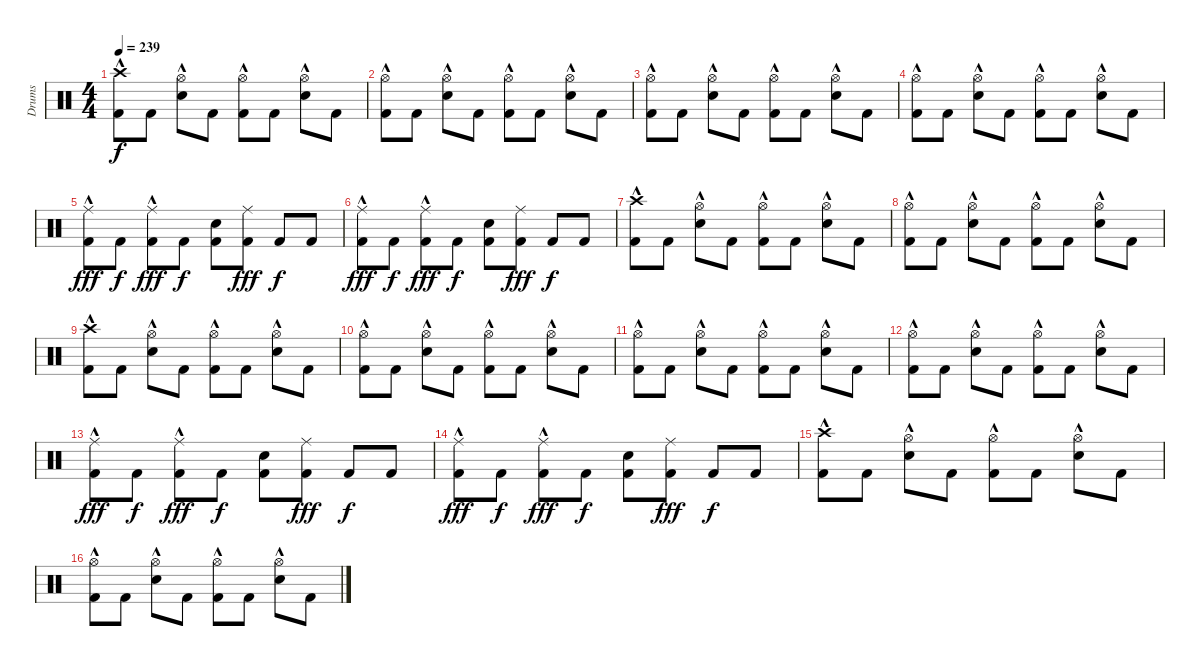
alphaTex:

\track ("Drums" "Drums") {instrument percussion}
\staff {score}
\articulation defaults
\ts (4 4)
\tempo 239
\clef neutral
\ks c
("Crash high (hit)"{hac} "Kick (hit) 2").8{dy f} "Kick (hit) 2".8 ("Snare (hit) 2"{hac} "Hi-Hat (open)"{hac}).8 "Kick (hit) 2".8 ("Hi-Hat (open)"{hac} "Kick (hit) 2").8 "Kick (hit) 2".8 ("Snare (hit) 2"{hac} "Hi-Hat (open)"{hac}).8 "Kick (hit) 2".8 |
("Hi-Hat (open)"{hac} "Kick (hit) 2").8 "Kick (hit) 2".8 ("Snare (hit) 2"{hac} "Hi-Hat (open)"{hac}).8 "Kick (hit) 2".8 ("Hi-Hat (open)"{hac} "Kick (hit) 2").8 "Kick (hit) 2".8 ("Snare (hit) 2"{hac} "Hi-Hat (open)"{hac}).8 "Kick (hit) 2".8 |
("Hi-Hat (open)"{hac} "Kick (hit) 2").8 "Kick (hit) 2".8 ("Snare (hit) 2"{hac} "Hi-Hat (open)"{hac}).8 "Kick (hit) 2".8 ("Hi-Hat (open)"{hac} "Kick (hit) 2").8 "Kick (hit) 2".8 ("Snare (hit) 2"{hac} "Hi-Hat (open)"{hac}).8 "Kick (hit) 2".8 |
("Hi-Hat (open)"{hac} "Kick (hit) 2").8 "Kick (hit) 2".8 ("Snare (hit) 2"{hac} "Hi-Hat (open)"{hac}).8 "Kick (hit) 2".8 ("Hi-Hat (open)"{hac} "Kick (hit) 2").8 "Kick (hit) 2".8 ("Snare (hit) 2"{hac} "Hi-Hat (open)"{hac}).8 "Kick (hit) 2".8 |
("Kick (hit) 2" "Ride (middle)"{hac}).8{dy fff} "Kick (hit) 2".8{dy f} ("Kick (hit) 2" "Ride (middle)"{hac}).8{dy fff} "Kick (hit) 2".8{dy f} ("Kick (hit) 2" "Snare (hit) 2").8 ("Kick (hit) 2" "Ride (middle)").8{dy fff} "Kick (hit) 2".8{dy f} "Kick (hit) 2".8 |
("Kick (hit) 2" "Ride (middle)"{hac}).8{dy fff} "Kick (hit) 2".8{dy f} ("Kick (hit) 2" "Ride (middle)"{hac}).8{dy fff} "Kick (hit) 2".8{dy f} ("Kick (hit) 2" "Snare (hit) 2").8 ("Kick (hit) 2" "Ride (middle)").8{dy fff} "Kick (hit) 2".8{dy f} "Kick (hit) 2".8 |
("Crash high (hit)"{hac} "Kick (hit) 2").8 "Kick (hit) 2".8 ("Snare (hit) 2"{hac} "Hi-Hat (open)"{hac}).8 "Kick (hit) 2".8 ("Hi-Hat (open)"{hac} "Kick (hit) 2").8 "Kick (hit) 2".8 ("Snare (hit) 2"{hac} "Hi-Hat (open)"{hac}).8 "Kick (hit) 2".8 |
("Hi-Hat (open)"{hac} "Kick (hit) 2").8 "Kick (hit) 2".8 ("Snare (hit) 2"{hac} "Hi-Hat (open)"{hac}).8 "Kick (hit) 2".8 ("Hi-Hat (open)"{hac} "Kick (hit) 2").8 "Kick (hit) 2".8 ("Snare (hit) 2"{hac} "Hi-Hat (open)"{hac}).8 "Kick (hit) 2".8 |
("Kick (hit) 2" "Crash high (hit)"{hac}).8 "Kick (hit) 2".8 ("Snare (hit) 2"{hac} "Hi-Hat (open)"{hac}).8 "Kick (hit) 2".8 ("Hi-Hat (open)"{hac} "Kick (hit) 2").8 "Kick (hit) 2".8 ("Snare (hit) 2"{hac} "Hi-Hat (open)"{hac}).8 "Kick (hit) 2".8 |
("Hi-Hat (open)"{hac} "Kick (hit) 2").8 "Kick (hit) 2".8 ("Snare (hit) 2"{hac} "Hi-Hat (open)"{hac}).8 "Kick (hit) 2".8 ("Hi-Hat (open)"{hac} "Kick (hit) 2").8 "Kick (hit) 2".8 ("Snare (hit) 2"{hac} "Hi-Hat (open)"{hac}).8 "Kick (hit) 2".8 |
("Hi-Hat (open)"{hac} "Kick (hit) 2").8 "Kick (hit) 2".8 ("Snare (hit) 2"{hac} "Hi-Hat (open)"{hac}).8 "Kick (hit) 2".8 ("Hi-Hat (open)"{hac} "Kick (hit) 2").8 "Kick (hit) 2".8 ("Snare (hit) 2"{hac} "Hi-Hat (open)"{hac}).8 "Kick (hit) 2".8 |
("Hi-Hat (open)"{hac} "Kick (hit) 2").8 "Kick (hit) 2".8 ("Snare (hit) 2"{hac} "Hi-Hat (open)"{hac}).8 "Kick (hit) 2".8 ("Hi-Hat (open)"{hac} "Kick (hit) 2").8 "Kick (hit) 2".8 ("Snare (hit) 2"{hac} "Hi-Hat (open)"{hac}).8 "Kick (hit) 2".8 |
("Kick (hit) 2" "Ride (middle)"{hac}).8{dy fff} "Kick (hit) 2".8{dy f} ("Kick (hit) 2" "Ride (middle)"{hac}).8{dy fff} "Kick (hit) 2".8{dy f} ("Kick (hit) 2" "Snare (hit) 2").8 ("Kick (hit) 2" "Ride (middle)").8{dy fff} "Kick (hit) 2".8{dy f} "Kick (hit) 2".8 |
("Kick (hit) 2" "Ride (middle)"{hac}).8{dy fff} "Kick (hit) 2".8{dy f} ("Kick (hit) 2" "Ride (middle)"{hac}).8{dy fff} "Kick (hit) 2".8{dy f} ("Kick (hit) 2" "Snare (hit) 2").8 ("Kick (hit) 2" "Ride (middle)").8{dy fff} "Kick (hit) 2".8{dy f} "Kick (hit) 2".8 |
("Crash high (hit)"{hac} "Kick (hit) 2").8 "Kick (hit) 2".8 ("Snare (hit) 2"{hac} "Hi-Hat (open)"{hac}).8 "Kick (hit) 2".8 ("Hi-Hat (open)"{hac} "Kick (hit) 2").8 "Kick (hit) 2".8 ("Snare (hit) 2"{hac} "Hi-Hat (open)"{hac}).8 "Kick (hit) 2".8 |
("Kick (hit) 2" "Hi-Hat (open)"{hac}).8 "Kick (hit) 2".8 ("Snare (hit) 2"{hac} "Hi-Hat (open)"{hac}).8 "Kick (hit) 2".8 ("Hi-Hat (open)"{hac} "Kick (hit) 2").8 "Kick (hit) 2".8 ("Snare (hit) 2"{hac} "Hi-Hat (open)"{hac}).8 "Kick (hit) 2".8
